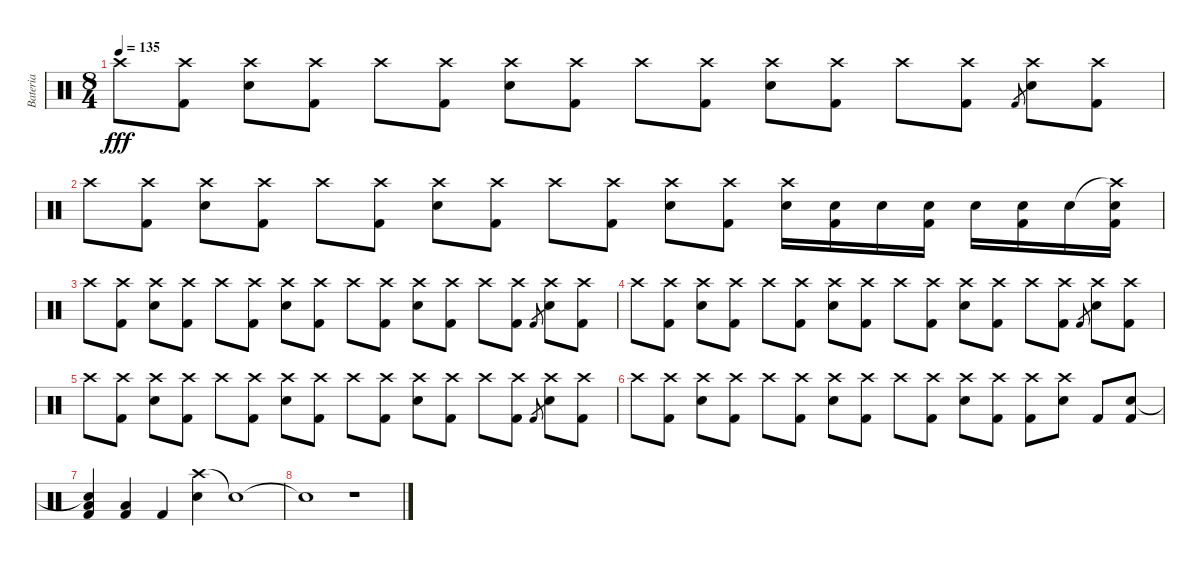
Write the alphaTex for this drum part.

\track ("Bateria" "Bateria") {instrument percussion}
\staff {score}
\articulation defaults
\ts (8 4)
\tempo 135
\clef neutral
\ks c "Crash high (hit)".8{dy fff}
("Crash high (hit)" "Kick (hit) 2").8 ("Crash high (hit)" "Electric Snare (hit)").8 ("Crash high (hit)" "Kick (hit) 2").8 "Crash high (hit)".8 ("Crash high (hit)" "Kick (hit) 2").8 ("Crash high (hit)" "Electric Snare (hit)").8 ("Crash high (hit)" "Kick (hit) 2").8 "Crash high (hit)".8 ("Crash high (hit)" "Kick (hit) 2").8 ("Crash high (hit)" "Electric Snare (hit)").8 ("Crash high (hit)" "Kick (hit) 2").8 "Crash high (hit)".8 ("Crash high (hit)" "Kick (hit) 2").8 "Kick (hit) 2".8{gr} ("Crash high (hit)" "Electric Snare (hit)").8 ("Crash high (hit)" "Kick (hit) 2").8 |
"Crash high (hit)".8 ("Crash high (hit)" "Kick (hit) 2").8 ("Crash high (hit)" "Electric Snare (hit)").8 ("Crash high (hit)" "Kick (hit) 2").8 "Crash high (hit)".8 ("Crash high (hit)" "Kick (hit) 2").8 ("Crash high (hit)" "Electric Snare (hit)").8 ("Crash high (hit)" "Kick (hit) 2").8 "Crash high (hit)".8 ("Crash high (hit)" "Kick (hit) 2").8 ("Crash high (hit)" "Electric Snare (hit)").8 ("Crash high (hit)" "Kick (hit) 2").8 ("Crash high (hit)" "Electric Snare (hit)").16 ("Electric Snare (hit)" "Kick (hit) 2").16 "Electric Snare (hit)".16 ("Electric Snare (hit)" "Kick (hit) 2").16 "Electric Snare (hit)".16 ("Electric Snare (hit)" "Kick (hit) 2").16 "Electric Snare (hit)".16 ("Crash high (hit)"{t} "Electric Snare (hit)" "Kick (hit) 2").16 |
"Crash high (hit)".8 ("Crash high (hit)" "Kick (hit) 2").8 ("Crash high (hit)" "Electric Snare (hit)").8 ("Crash high (hit)" "Kick (hit) 2").8 "Crash high (hit)".8 ("Crash high (hit)" "Kick (hit) 2").8 ("Crash high (hit)" "Electric Snare (hit)").8 ("Crash high (hit)" "Kick (hit) 2").8 "Crash high (hit)".8 ("Crash high (hit)" "Kick (hit) 2").8 ("Crash high (hit)" "Electric Snare (hit)").8 ("Crash high (hit)" "Kick (hit) 2").8 "Crash high (hit)".8 ("Crash high (hit)" "Kick (hit) 2").8 "Kick (hit) 2".8{gr} ("Crash high (hit)" "Electric Snare (hit)").8 ("Crash high (hit)" "Kick (hit) 2").8 |
"Crash high (hit)".8 ("Crash high (hit)" "Kick (hit) 2").8 ("Crash high (hit)" "Electric Snare (hit)").8 ("Crash high (hit)" "Kick (hit) 2").8 "Crash high (hit)".8 ("Crash high (hit)" "Kick (hit) 2").8 ("Crash high (hit)" "Electric Snare (hit)").8 ("Crash high (hit)" "Kick (hit) 2").8 "Crash high (hit)".8 ("Crash high (hit)" "Kick (hit) 2").8 ("Crash high (hit)" "Electric Snare (hit)").8 ("Crash high (hit)" "Kick (hit) 2").8 "Crash high (hit)".8 ("Crash high (hit)" "Kick (hit) 2").8 "Kick (hit) 2".8{gr} ("Crash high (hit)" "Electric Snare (hit)").8 ("Crash high (hit)" "Kick (hit) 2").8 |
"Crash high (hit)".8 ("Crash high (hit)" "Kick (hit) 2").8 ("Crash high (hit)" "Electric Snare (hit)").8 ("Crash high (hit)" "Kick (hit) 2").8 "Crash high (hit)".8 ("Crash high (hit)" "Kick (hit) 2").8 ("Crash high (hit)" "Electric Snare (hit)").8 ("Crash high (hit)" "Kick (hit) 2").8 "Crash high (hit)".8 ("Crash high (hit)" "Kick (hit) 2").8 ("Crash high (hit)" "Electric Snare (hit)").8 ("Crash high (hit)" "Kick (hit) 2").8 "Crash high (hit)".8 ("Crash high (hit)" "Kick (hit) 2").8 "Kick (hit) 2".8{gr} ("Crash high (hit)" "Electric Snare (hit)").8 ("Crash high (hit)" "Kick (hit) 2").8 |
"Crash high (hit)".8 ("Crash high (hit)" "Kick (hit) 2").8 ("Crash high (hit)" "Electric Snare (hit)").8 ("Crash high (hit)" "Kick (hit) 2").8 "Crash high (hit)".8 ("Crash high (hit)" "Kick (hit) 2").8 ("Crash high (hit)" "Electric Snare (hit)").8 ("Crash high (hit)" "Kick (hit) 2").8 "Crash high (hit)".8 ("Crash high (hit)" "Kick (hit) 2").8 ("Crash high (hit)" "Electric Snare (hit)").8 ("Crash high (hit)" "Kick (hit) 2").8 ("Crash high (hit)" "Kick (hit) 2").8 ("Crash high (hit)" "Electric Snare (hit)").8 "Kick (hit) 2".8 ("Electric Snare (hit)" "Kick (hit) 2").8 |
("Snare (hit)"{t} "Low Tom (hit)" "Kick (hit) 2").4 ("Low Tom (hit)" "Kick (hit) 2").4 "Kick (hit) 2".4 ("Crash high (hit)" "Electric Snare (hit)").4 "Snare (hit)"{t}.1 |
"Snare (hit)"{t}.1 r.1
